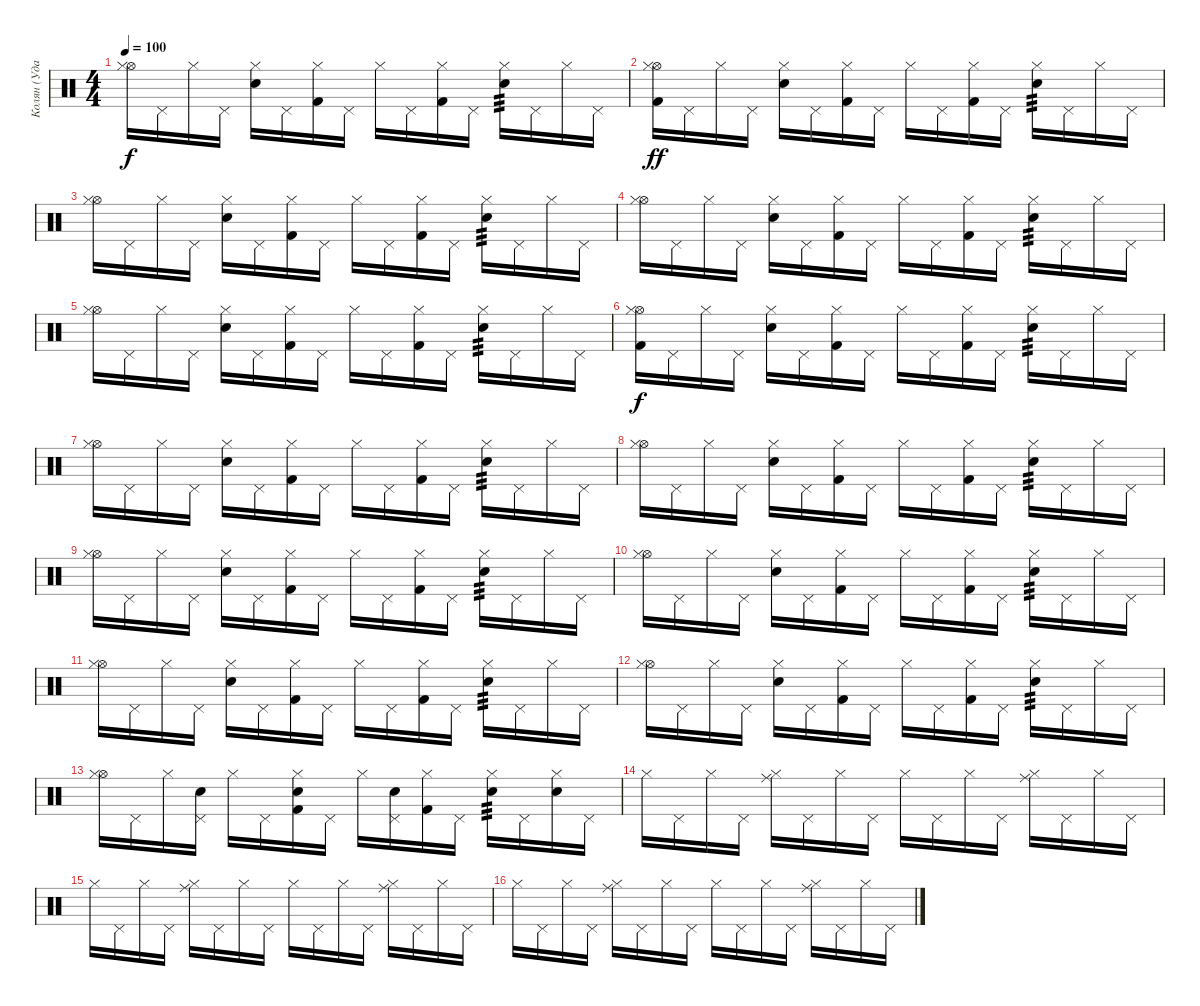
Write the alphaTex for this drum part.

\track ("Колян (Ударные)" "Колян (Уда") {instrument percussion}
\staff {score}
\articulation defaults
\ts (4 4)
\tempo 100
\clef neutral
\ks c
("Hi-Hat (open)" "Hi-Hat (closed)").16{dy f} "Pedal Hi-Hat (hit)".16 "Hi-Hat (closed)".16 "Pedal Hi-Hat (hit)".16 ("Snare (hit) 2" "Hi-Hat (closed)").16 "Pedal Hi-Hat (hit)".16 ("Kick (hit) 2" "Hi-Hat (closed)").16 "Pedal Hi-Hat (hit)".16 "Hi-Hat (closed)".16 "Pedal Hi-Hat (hit)".16 ("Kick (hit) 2" "Hi-Hat (closed)").16 "Pedal Hi-Hat (hit)".16 ("Snare (hit) 2" "Hi-Hat (closed)").16{tp 3} "Pedal Hi-Hat (hit)".16 "Hi-Hat (closed)".16 "Pedal Hi-Hat (hit)".16 |
("Kick (hit) 2" "Hi-Hat (open)" "Hi-Hat (closed)").16{dy ff} "Pedal Hi-Hat (hit)".16 "Hi-Hat (closed)".16 "Pedal Hi-Hat (hit)".16 ("Snare (hit) 2" "Hi-Hat (closed)").16 "Pedal Hi-Hat (hit)".16 ("Kick (hit) 2" "Hi-Hat (closed)").16 "Pedal Hi-Hat (hit)".16 "Hi-Hat (closed)".16 "Pedal Hi-Hat (hit)".16 ("Kick (hit) 2" "Hi-Hat (closed)").16 "Pedal Hi-Hat (hit)".16 ("Snare (hit) 2" "Hi-Hat (closed)").16{tp 3} "Pedal Hi-Hat (hit)".16 "Hi-Hat (closed)".16 "Pedal Hi-Hat (hit)".16 |
("Hi-Hat (open)" "Hi-Hat (closed)").16 "Pedal Hi-Hat (hit)".16 "Hi-Hat (closed)".16 "Pedal Hi-Hat (hit)".16 ("Snare (hit) 2" "Hi-Hat (closed)").16 "Pedal Hi-Hat (hit)".16 ("Kick (hit) 2" "Hi-Hat (closed)").16 "Pedal Hi-Hat (hit)".16 "Hi-Hat (closed)".16 "Pedal Hi-Hat (hit)".16 ("Kick (hit) 2" "Hi-Hat (closed)").16 "Pedal Hi-Hat (hit)".16 ("Snare (hit) 2" "Hi-Hat (closed)").16{tp 3} "Pedal Hi-Hat (hit)".16 "Hi-Hat (closed)".16 "Pedal Hi-Hat (hit)".16 |
("Hi-Hat (open)" "Hi-Hat (closed)").16 "Pedal Hi-Hat (hit)".16 "Hi-Hat (closed)".16 "Pedal Hi-Hat (hit)".16 ("Snare (hit) 2" "Hi-Hat (closed)").16 "Pedal Hi-Hat (hit)".16 ("Kick (hit) 2" "Hi-Hat (closed)").16 "Pedal Hi-Hat (hit)".16 "Hi-Hat (closed)".16 "Pedal Hi-Hat (hit)".16 ("Kick (hit) 2" "Hi-Hat (closed)").16 "Pedal Hi-Hat (hit)".16 ("Snare (hit) 2" "Hi-Hat (closed)").16{tp 3} "Pedal Hi-Hat (hit)".16 "Hi-Hat (closed)".16 "Pedal Hi-Hat (hit)".16 |
("Hi-Hat (open)" "Hi-Hat (closed)").16 "Pedal Hi-Hat (hit)".16 "Hi-Hat (closed)".16 "Pedal Hi-Hat (hit)".16 ("Snare (hit) 2" "Hi-Hat (closed)").16 "Pedal Hi-Hat (hit)".16 ("Kick (hit) 2" "Hi-Hat (closed)").16 "Pedal Hi-Hat (hit)".16 "Hi-Hat (closed)".16 "Pedal Hi-Hat (hit)".16 ("Kick (hit) 2" "Hi-Hat (closed)").16 "Pedal Hi-Hat (hit)".16 ("Snare (hit) 2" "Hi-Hat (closed)").16{tp 3} "Pedal Hi-Hat (hit)".16 "Hi-Hat (closed)".16 "Pedal Hi-Hat (hit)".16 |
("Kick (hit) 2" "Hi-Hat (open)" "Hi-Hat (closed)").16{dy f} "Pedal Hi-Hat (hit)".16 "Hi-Hat (closed)".16 "Pedal Hi-Hat (hit)".16 ("Snare (hit) 2" "Hi-Hat (closed)").16 "Pedal Hi-Hat (hit)".16 ("Kick (hit) 2" "Hi-Hat (closed)").16 "Pedal Hi-Hat (hit)".16 "Hi-Hat (closed)".16 "Pedal Hi-Hat (hit)".16 ("Kick (hit) 2" "Hi-Hat (closed)").16 "Pedal Hi-Hat (hit)".16 ("Snare (hit) 2" "Hi-Hat (closed)").16{tp 3} "Pedal Hi-Hat (hit)".16 "Hi-Hat (closed)".16 "Pedal Hi-Hat (hit)".16 |
("Hi-Hat (open)" "Hi-Hat (closed)").16 "Pedal Hi-Hat (hit)".16 "Hi-Hat (closed)".16 "Pedal Hi-Hat (hit)".16 ("Snare (hit) 2" "Hi-Hat (closed)").16 "Pedal Hi-Hat (hit)".16 ("Kick (hit) 2" "Hi-Hat (closed)").16 "Pedal Hi-Hat (hit)".16 "Hi-Hat (closed)".16 "Pedal Hi-Hat (hit)".16 ("Kick (hit) 2" "Hi-Hat (closed)").16 "Pedal Hi-Hat (hit)".16 ("Snare (hit) 2" "Hi-Hat (closed)").16{tp 3} "Pedal Hi-Hat (hit)".16 "Hi-Hat (closed)".16 "Pedal Hi-Hat (hit)".16 |
("Hi-Hat (open)" "Hi-Hat (closed)").16 "Pedal Hi-Hat (hit)".16 "Hi-Hat (closed)".16 "Pedal Hi-Hat (hit)".16 ("Snare (hit) 2" "Hi-Hat (closed)").16 "Pedal Hi-Hat (hit)".16 ("Kick (hit) 2" "Hi-Hat (closed)").16 "Pedal Hi-Hat (hit)".16 "Hi-Hat (closed)".16 "Pedal Hi-Hat (hit)".16 ("Kick (hit) 2" "Hi-Hat (closed)").16 "Pedal Hi-Hat (hit)".16 ("Snare (hit) 2" "Hi-Hat (closed)").16{tp 3} "Pedal Hi-Hat (hit)".16 "Hi-Hat (closed)".16 "Pedal Hi-Hat (hit)".16 |
("Hi-Hat (open)" "Hi-Hat (closed)").16 "Pedal Hi-Hat (hit)".16 "Hi-Hat (closed)".16 "Pedal Hi-Hat (hit)".16 ("Snare (hit) 2" "Hi-Hat (closed)").16 "Pedal Hi-Hat (hit)".16 ("Kick (hit) 2" "Hi-Hat (closed)").16 "Pedal Hi-Hat (hit)".16 "Hi-Hat (closed)".16 "Pedal Hi-Hat (hit)".16 ("Kick (hit) 2" "Hi-Hat (closed)").16 "Pedal Hi-Hat (hit)".16 ("Snare (hit) 2" "Hi-Hat (closed)").16{tp 3} "Pedal Hi-Hat (hit)".16 "Hi-Hat (closed)".16 "Pedal Hi-Hat (hit)".16 |
("Hi-Hat (open)" "Hi-Hat (closed)").16 "Pedal Hi-Hat (hit)".16 "Hi-Hat (closed)".16 "Pedal Hi-Hat (hit)".16 ("Snare (hit) 2" "Hi-Hat (closed)").16 "Pedal Hi-Hat (hit)".16 ("Kick (hit) 2" "Hi-Hat (closed)").16 "Pedal Hi-Hat (hit)".16 "Hi-Hat (closed)".16 "Pedal Hi-Hat (hit)".16 ("Kick (hit) 2" "Hi-Hat (closed)").16 "Pedal Hi-Hat (hit)".16 ("Snare (hit) 2" "Hi-Hat (closed)").16{tp 3} "Pedal Hi-Hat (hit)".16 "Hi-Hat (closed)".16 "Pedal Hi-Hat (hit)".16 |
("Hi-Hat (open)" "Hi-Hat (closed)").16 "Pedal Hi-Hat (hit)".16 "Hi-Hat (closed)".16 "Pedal Hi-Hat (hit)".16 ("Snare (hit) 2" "Hi-Hat (closed)").16 "Pedal Hi-Hat (hit)".16 ("Kick (hit) 2" "Hi-Hat (closed)").16 "Pedal Hi-Hat (hit)".16 "Hi-Hat (closed)".16 "Pedal Hi-Hat (hit)".16 ("Kick (hit) 2" "Hi-Hat (closed)").16 "Pedal Hi-Hat (hit)".16 ("Snare (hit) 2" "Hi-Hat (closed)").16{tp 3} "Pedal Hi-Hat (hit)".16 "Hi-Hat (closed)".16 "Pedal Hi-Hat (hit)".16 |
("Hi-Hat (open)" "Hi-Hat (closed)").16 "Pedal Hi-Hat (hit)".16 "Hi-Hat (closed)".16 "Pedal Hi-Hat (hit)".16 ("Snare (hit) 2" "Hi-Hat (closed)").16 "Pedal Hi-Hat (hit)".16 ("Kick (hit) 2" "Hi-Hat (closed)").16 "Pedal Hi-Hat (hit)".16 "Hi-Hat (closed)".16 "Pedal Hi-Hat (hit)".16 ("Kick (hit) 2" "Hi-Hat (closed)").16 "Pedal Hi-Hat (hit)".16 ("Snare (hit) 2" "Hi-Hat (closed)").16{tp 3} "Pedal Hi-Hat (hit)".16 "Hi-Hat (closed)".16 "Pedal Hi-Hat (hit)".16 |
("Hi-Hat (open)" "Hi-Hat (closed)").16 "Pedal Hi-Hat (hit)".16 "Hi-Hat (closed)".16 ("Snare (hit) 2" "Pedal Hi-Hat (hit)").16 "Hi-Hat (closed)".16 "Pedal Hi-Hat (hit)".16 ("Snare (hit) 2" "Kick (hit) 2" "Hi-Hat (closed)").16 "Pedal Hi-Hat (hit)".16 "Hi-Hat (closed)".16 ("Snare (hit) 2" "Pedal Hi-Hat (hit)").16 ("Kick (hit) 2" "Hi-Hat (closed)").16 "Pedal Hi-Hat (hit)".16 ("Snare (hit) 2" "Hi-Hat (closed)").16{tp 3} "Pedal Hi-Hat (hit)".16 ("Snare (hit) 2" "Hi-Hat (closed)").16 "Pedal Hi-Hat (hit)".16 |
"Hi-Hat (closed)".16{volume 8} "Pedal Hi-Hat (hit)".16 "Hi-Hat (closed)".16 "Pedal Hi-Hat (hit)".16 ("Ride (middle)" "Hi-Hat (closed)").16 "Pedal Hi-Hat (hit)".16 "Hi-Hat (closed)".16 "Pedal Hi-Hat (hit)".16 "Hi-Hat (closed)".16 "Pedal Hi-Hat (hit)".16 "Hi-Hat (closed)".16 "Pedal Hi-Hat (hit)".16 ("Ride (middle)" "Hi-Hat (closed)").16 "Pedal Hi-Hat (hit)".16 "Hi-Hat (closed)".16 "Pedal Hi-Hat (hit)".16 |
"Hi-Hat (closed)".16 "Pedal Hi-Hat (hit)".16 "Hi-Hat (closed)".16 "Pedal Hi-Hat (hit)".16 ("Ride (middle)" "Hi-Hat (closed)").16 "Pedal Hi-Hat (hit)".16 "Hi-Hat (closed)".16 "Pedal Hi-Hat (hit)".16 "Hi-Hat (closed)".16 "Pedal Hi-Hat (hit)".16 "Hi-Hat (closed)".16 "Pedal Hi-Hat (hit)".16 ("Ride (middle)" "Hi-Hat (closed)").16 "Pedal Hi-Hat (hit)".16 "Hi-Hat (closed)".16 "Pedal Hi-Hat (hit)".16 |
"Hi-Hat (closed)".16 "Pedal Hi-Hat (hit)".16 "Hi-Hat (closed)".16 "Pedal Hi-Hat (hit)".16 ("Ride (middle)" "Hi-Hat (closed)").16 "Pedal Hi-Hat (hit)".16 "Hi-Hat (closed)".16 "Pedal Hi-Hat (hit)".16 "Hi-Hat (closed)".16 "Pedal Hi-Hat (hit)".16 "Hi-Hat (closed)".16 "Pedal Hi-Hat (hit)".16 ("Ride (middle)" "Hi-Hat (closed)").16 "Pedal Hi-Hat (hit)".16 "Hi-Hat (closed)".16 "Pedal Hi-Hat (hit)".16
